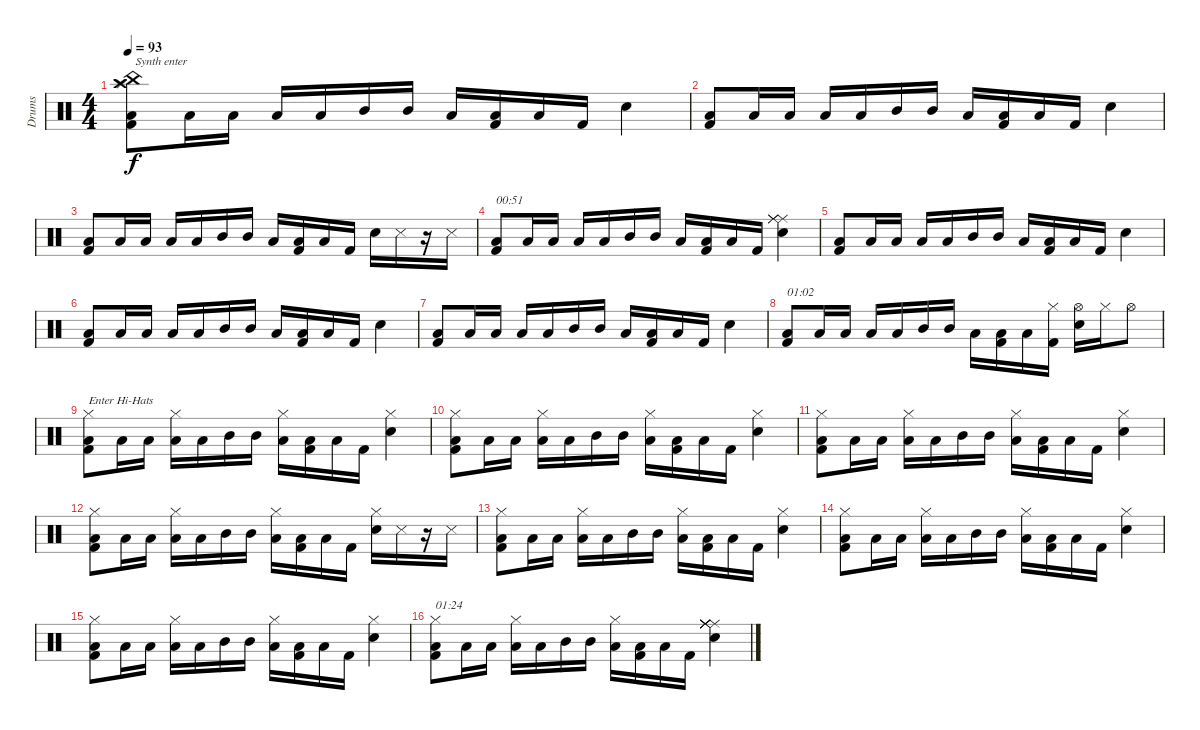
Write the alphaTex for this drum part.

\track ("Drums" "Drums") {instrument percussion}
\staff {score}
\articulation defaults
\ts (4 4)
\tempo 93
\clef neutral
\ks c
("Splash (hit)" "China (hit)" "Crash high (hit)" "Low Floor Tom (hit)" "Kick (hit) 2").8{txt "Synth enter" dy f} "Low Floor Tom (hit)".16 "Low Tom (hit)".16 "Low Tom (hit)".16 "Low Floor Tom (hit)".16 "Mid Tom (hit)".16 "Mid Tom (hit)".16 "Low Floor Tom (hit)".16 ("Low Tom (hit)" "Kick (hit) 2").16 "Low Floor Tom (hit)".16 "Kick (hit) 2".16 "Snare (hit) 2".4 |
("Low Floor Tom (hit)" "Kick (hit) 2").8 "Low Floor Tom (hit)".16 "Low Tom (hit)".16 "Low Tom (hit)".16 "Low Floor Tom (hit)".16 "Mid Tom (hit)".16 "Mid Tom (hit)".16 "Low Floor Tom (hit)".16 ("Low Tom (hit)" "Kick (hit) 2").16 "Low Floor Tom (hit)".16 "Kick (hit) 2".16 "Snare (hit) 2".4 |
("Low Floor Tom (hit)" "Kick (hit) 2").8 "Low Floor Tom (hit)".16 "Low Tom (hit)".16 "Low Tom (hit)".16 "Low Floor Tom (hit)".16 "Mid Tom (hit)".16 "Mid Tom (hit)".16 "Low Floor Tom (hit)".16 ("Low Tom (hit)" "Kick (hit) 2").16 "Low Floor Tom (hit)".16 "Kick (hit) 2".16 "Snare (hit) 2".16 "Snare (side stick) 3".16 r.16 "Snare (side stick) 3".16 |
("Low Floor Tom (hit)" "Kick (hit) 2").8{txt "00:51"} "Low Floor Tom (hit)".16 "Low Tom (hit)".16 "Low Tom (hit)".16 "Low Floor Tom (hit)".16 "Mid Tom (hit)".16 "Mid Tom (hit)".16 "Low Floor Tom (hit)".16 ("Low Tom (hit)" "Kick (hit) 2").16 "Low Floor Tom (hit)".16 "Kick (hit) 2".16 ("Ride (middle)" "Ride (middle)" "Ride (middle)" "Snare (hit) 2").4 |
("Low Floor Tom (hit)" "Kick (hit) 2").8 "Low Floor Tom (hit)".16 "Low Tom (hit)".16 "Low Tom (hit)".16 "Low Floor Tom (hit)".16 "Mid Tom (hit)".16 "Mid Tom (hit)".16 "Low Floor Tom (hit)".16 ("Low Tom (hit)" "Kick (hit) 2").16 "Low Floor Tom (hit)".16 "Kick (hit) 2".16 "Snare (hit) 2".4 |
("Low Floor Tom (hit)" "Kick (hit) 2").8 "Low Floor Tom (hit)".16 "Low Tom (hit)".16 "Low Tom (hit)".16 "Low Floor Tom (hit)".16 "Mid Tom (hit)".16 "Mid Tom (hit)".16 "Low Floor Tom (hit)".16 ("Low Tom (hit)" "Kick (hit) 2").16 "Low Floor Tom (hit)".16 "Kick (hit) 2".16 "Snare (hit) 2".4 |
("Low Floor Tom (hit)" "Kick (hit) 2").8 "Low Floor Tom (hit)".16 "Low Tom (hit)".16 "Low Tom (hit)".16 "Low Floor Tom (hit)".16 "Mid Tom (hit)".16 "Mid Tom (hit)".16 "Low Floor Tom (hit)".16 ("Low Tom (hit)" "Kick (hit) 2").16 "Low Floor Tom (hit)".16 "Kick (hit) 2".16 "Snare (hit) 2".4 |
("Low Floor Tom (hit)" "Kick (hit) 2").8{txt "01:02"} "Low Floor Tom (hit)".16 "Low Tom (hit)".16 "Low Tom (hit)".16 "Low Floor Tom (hit)".16 "Mid Tom (hit)".16 "Mid Tom (hit)".16 "Low Floor Tom (hit)".16 ("Low Tom (hit)" "Kick (hit) 2").16 "Low Floor Tom (hit)".16 ("Hi-Hat (closed)" "Kick (hit) 2").16 ("Hi-Hat (open)" "Snare (hit) 2").16 "Hi-Hat (closed)".16 "Hi-Hat (open)".8 |
("Hi-Hat (closed)" "Low Floor Tom (hit)" "Kick (hit) 2").8{txt "Enter Hi-Hats"} "Low Floor Tom (hit)".16 "Low Tom (hit)".16 ("Hi-Hat (closed)" "Low Tom (hit)").16 "Low Floor Tom (hit)".16 "Mid Tom (hit)".16 "Mid Tom (hit)".16 ("Hi-Hat (closed)" "Low Floor Tom (hit)").16 ("Low Tom (hit)" "Kick (hit) 2").16 "Low Floor Tom (hit)".16 "Kick (hit) 2".16 ("Hi-Hat (closed)" "Snare (hit) 2").4 |
("Hi-Hat (closed)" "Low Floor Tom (hit)" "Kick (hit) 2").8 "Low Floor Tom (hit)".16 "Low Tom (hit)".16 ("Hi-Hat (closed)" "Low Tom (hit)").16 "Low Floor Tom (hit)".16 "Mid Tom (hit)".16 "Mid Tom (hit)".16 ("Hi-Hat (closed)" "Low Floor Tom (hit)").16 ("Low Tom (hit)" "Kick (hit) 2").16 "Low Floor Tom (hit)".16 "Kick (hit) 2".16 ("Hi-Hat (closed)" "Snare (hit) 2").4 |
("Hi-Hat (closed)" "Low Floor Tom (hit)" "Kick (hit) 2").8 "Low Floor Tom (hit)".16 "Low Tom (hit)".16 ("Hi-Hat (closed)" "Low Tom (hit)").16 "Low Floor Tom (hit)".16 "Mid Tom (hit)".16 "Mid Tom (hit)".16 ("Hi-Hat (closed)" "Low Floor Tom (hit)").16 ("Low Tom (hit)" "Kick (hit) 2").16 "Low Floor Tom (hit)".16 "Kick (hit) 2".16 ("Hi-Hat (closed)" "Snare (hit) 2").4 |
("Hi-Hat (closed)" "Low Floor Tom (hit)" "Kick (hit) 2").8 "Low Floor Tom (hit)".16 "Low Tom (hit)".16 ("Hi-Hat (closed)" "Low Tom (hit)").16 "Low Floor Tom (hit)".16 "Mid Tom (hit)".16 "Mid Tom (hit)".16 ("Hi-Hat (closed)" "Low Floor Tom (hit)").16 ("Low Tom (hit)" "Kick (hit) 2").16 "Low Floor Tom (hit)".16 "Kick (hit) 2".16 ("Hi-Hat (closed)" "Snare (hit) 2").16 "Snare (side stick) 3".16 r.16 "Snare (side stick) 3".16 |
("Hi-Hat (closed)" "Low Floor Tom (hit)" "Kick (hit) 2").8 "Low Floor Tom (hit)".16 "Low Tom (hit)".16 ("Hi-Hat (closed)" "Low Tom (hit)").16 "Low Floor Tom (hit)".16 "Mid Tom (hit)".16 "Mid Tom (hit)".16 ("Hi-Hat (closed)" "Low Floor Tom (hit)").16 ("Low Tom (hit)" "Kick (hit) 2").16 "Low Floor Tom (hit)".16 "Kick (hit) 2".16 ("Hi-Hat (closed)" "Snare (hit) 2").4 |
("Hi-Hat (closed)" "Low Floor Tom (hit)" "Kick (hit) 2").8 "Low Floor Tom (hit)".16 "Low Tom (hit)".16 ("Hi-Hat (closed)" "Low Tom (hit)").16 "Low Floor Tom (hit)".16 "Mid Tom (hit)".16 "Mid Tom (hit)".16 ("Hi-Hat (closed)" "Low Floor Tom (hit)").16 ("Low Tom (hit)" "Kick (hit) 2").16 "Low Floor Tom (hit)".16 "Kick (hit) 2".16 ("Hi-Hat (closed)" "Snare (hit) 2").4 |
("Hi-Hat (closed)" "Low Floor Tom (hit)" "Kick (hit) 2").8 "Low Floor Tom (hit)".16 "Low Tom (hit)".16 ("Hi-Hat (closed)" "Low Tom (hit)").16 "Low Floor Tom (hit)".16 "Mid Tom (hit)".16 "Mid Tom (hit)".16 ("Hi-Hat (closed)" "Low Floor Tom (hit)").16 ("Low Tom (hit)" "Kick (hit) 2").16 "Low Floor Tom (hit)".16 "Kick (hit) 2".16 ("Hi-Hat (closed)" "Snare (hit) 2").4 |
("Hi-Hat (closed)" "Low Floor Tom (hit)" "Kick (hit) 2").8{txt "01:24"} "Low Floor Tom (hit)".16 "Low Tom (hit)".16 ("Hi-Hat (closed)" "Low Tom (hit)").16 "Low Floor Tom (hit)".16 "Mid Tom (hit)".16 "Mid Tom (hit)".16 ("Hi-Hat (closed)" "Low Floor Tom (hit)").16 ("Low Tom (hit)" "Kick (hit) 2").16 "Low Floor Tom (hit)".16 "Kick (hit) 2".16 ("Ride (middle)" "Ride (middle)" "Ride (middle)" "Ride (middle)" "Snare (hit) 2" "Ride (middle)").4
